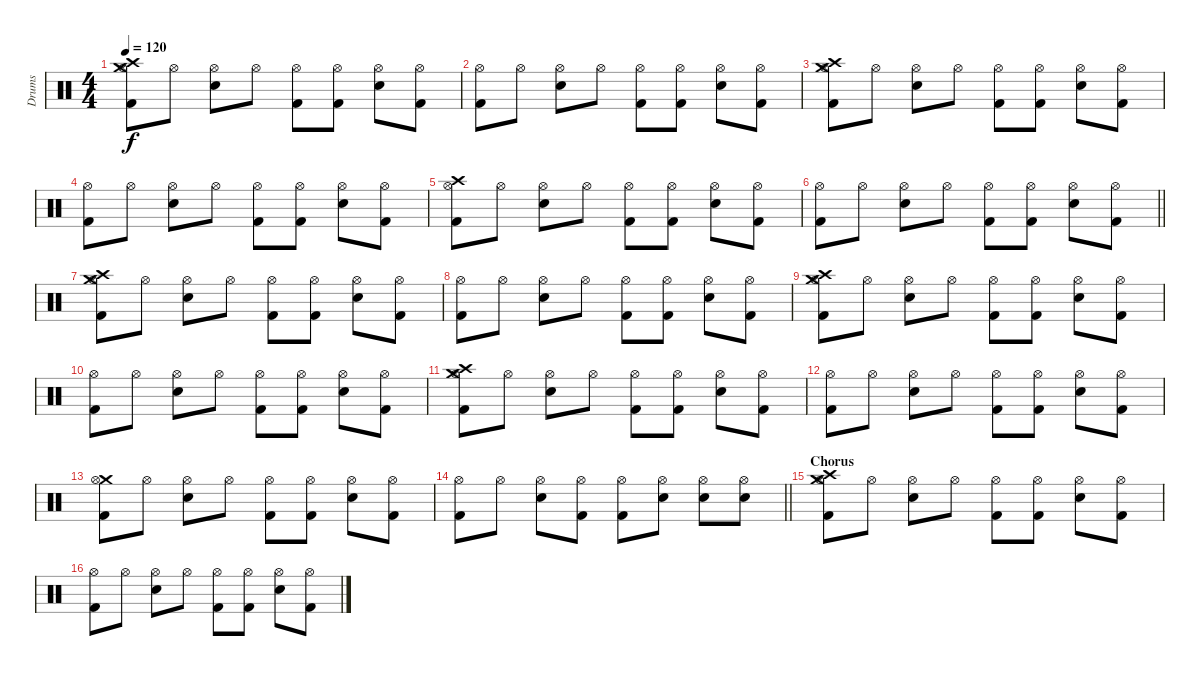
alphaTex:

\track ("Drums" "Drums") {instrument percussion}
\staff {score}
\articulation defaults
\ts (4 4)
\tempo 120
\clef neutral
\ks c
("Crash high (hit)" "Crash medium (hit)" "Kick (hit) 2" "Hi-Hat (open)").8{dy f} "Hi-Hat (open)".8 ("Snare (hit) 2" "Hi-Hat (open)").8 "Hi-Hat (open)".8 ("Kick (hit) 2" "Hi-Hat (open)").8 ("Kick (hit) 2" "Hi-Hat (open)").8 ("Snare (hit) 2" "Hi-Hat (open)").8 ("Kick (hit) 2" "Hi-Hat (open)").8 |
("Kick (hit) 2" "Hi-Hat (open)").8 "Hi-Hat (open)".8 ("Snare (hit) 2" "Hi-Hat (open)").8 "Hi-Hat (open)".8 ("Kick (hit) 2" "Hi-Hat (open)").8 ("Kick (hit) 2" "Hi-Hat (open)").8 ("Snare (hit) 2" "Hi-Hat (open)").8 ("Kick (hit) 2" "Hi-Hat (open)").8 |
("Crash high (hit)" "Crash medium (hit)" "Kick (hit) 2" "Hi-Hat (open)").8 "Hi-Hat (open)".8 ("Snare (hit) 2" "Hi-Hat (open)").8 "Hi-Hat (open)".8 ("Kick (hit) 2" "Hi-Hat (open)").8 ("Kick (hit) 2" "Hi-Hat (open)").8 ("Snare (hit) 2" "Hi-Hat (open)").8 ("Kick (hit) 2" "Hi-Hat (open)").8 |
("Kick (hit) 2" "Hi-Hat (open)").8 "Hi-Hat (open)".8 ("Snare (hit) 2" "Hi-Hat (open)").8 "Hi-Hat (open)".8 ("Kick (hit) 2" "Hi-Hat (open)").8 ("Kick (hit) 2" "Hi-Hat (open)").8 ("Snare (hit) 2" "Hi-Hat (open)").8 ("Kick (hit) 2" "Hi-Hat (open)").8 |
("Crash high (hit)" "Kick (hit) 2" "Hi-Hat (open)").8 "Hi-Hat (open)".8 ("Snare (hit) 2" "Hi-Hat (open)").8 "Hi-Hat (open)".8 ("Kick (hit) 2" "Hi-Hat (open)").8 ("Kick (hit) 2" "Hi-Hat (open)").8 ("Snare (hit) 2" "Hi-Hat (open)").8 ("Kick (hit) 2" "Hi-Hat (open)").8 |
\barLineRight lightlight
("Kick (hit) 2" "Hi-Hat (open)").8 "Hi-Hat (open)".8 ("Snare (hit) 2" "Hi-Hat (open)").8 "Hi-Hat (open)".8 ("Kick (hit) 2" "Hi-Hat (open)").8 ("Kick (hit) 2" "Hi-Hat (open)").8 ("Snare (hit) 2" "Hi-Hat (open)").8 ("Kick (hit) 2" "Hi-Hat (open)").8 |
("Crash high (hit)" "Crash medium (hit)" "Kick (hit) 2" "Hi-Hat (open)").8 "Hi-Hat (open)".8 ("Snare (hit) 2" "Hi-Hat (open)").8 "Hi-Hat (open)".8 ("Kick (hit) 2" "Hi-Hat (open)").8 ("Kick (hit) 2" "Hi-Hat (open)").8 ("Snare (hit) 2" "Hi-Hat (open)").8 ("Kick (hit) 2" "Hi-Hat (open)").8 |
("Kick (hit) 2" "Hi-Hat (open)").8 "Hi-Hat (open)".8 ("Snare (hit) 2" "Hi-Hat (open)").8 "Hi-Hat (open)".8 ("Kick (hit) 2" "Hi-Hat (open)").8 ("Kick (hit) 2" "Hi-Hat (open)").8 ("Snare (hit) 2" "Hi-Hat (open)").8 ("Kick (hit) 2" "Hi-Hat (open)").8 |
("Crash high (hit)" "Crash medium (hit)" "Kick (hit) 2" "Hi-Hat (open)").8 "Hi-Hat (open)".8 ("Snare (hit) 2" "Hi-Hat (open)").8 "Hi-Hat (open)".8 ("Kick (hit) 2" "Hi-Hat (open)").8 ("Kick (hit) 2" "Hi-Hat (open)").8 ("Snare (hit) 2" "Hi-Hat (open)").8 ("Kick (hit) 2" "Hi-Hat (open)").8 |
("Kick (hit) 2" "Hi-Hat (open)").8 "Hi-Hat (open)".8 ("Snare (hit) 2" "Hi-Hat (open)").8 "Hi-Hat (open)".8 ("Kick (hit) 2" "Hi-Hat (open)").8 ("Kick (hit) 2" "Hi-Hat (open)").8 ("Snare (hit) 2" "Hi-Hat (open)").8 ("Kick (hit) 2" "Hi-Hat (open)").8 |
("Crash high (hit)" "Crash medium (hit)" "Kick (hit) 2" "Hi-Hat (open)").8 "Hi-Hat (open)".8 ("Snare (hit) 2" "Hi-Hat (open)").8 "Hi-Hat (open)".8 ("Kick (hit) 2" "Hi-Hat (open)").8 ("Kick (hit) 2" "Hi-Hat (open)").8 ("Snare (hit) 2" "Hi-Hat (open)").8 ("Kick (hit) 2" "Hi-Hat (open)").8 |
("Kick (hit) 2" "Hi-Hat (open)").8 "Hi-Hat (open)".8 ("Snare (hit) 2" "Hi-Hat (open)").8 "Hi-Hat (open)".8 ("Kick (hit) 2" "Hi-Hat (open)").8 ("Kick (hit) 2" "Hi-Hat (open)").8 ("Snare (hit) 2" "Hi-Hat (open)").8 ("Kick (hit) 2" "Hi-Hat (open)").8 |
("Crash medium (hit)" "Kick (hit) 2" "Hi-Hat (open)").8 "Hi-Hat (open)".8 ("Snare (hit) 2" "Hi-Hat (open)").8 "Hi-Hat (open)".8 ("Kick (hit) 2" "Hi-Hat (open)").8 ("Kick (hit) 2" "Hi-Hat (open)").8 ("Snare (hit) 2" "Hi-Hat (open)").8 ("Kick (hit) 2" "Hi-Hat (open)").8 |
\barLineRight lightlight
("Kick (hit) 2" "Hi-Hat (open)").8 "Hi-Hat (open)".8 ("Snare (hit) 2" "Hi-Hat (open)").8 ("Kick (hit) 2" "Hi-Hat (open)").8 ("Kick (hit) 2" "Hi-Hat (open)").8 ("Snare (hit) 2" "Hi-Hat (open)").8 ("Snare (hit) 2" "Hi-Hat (open)").8 ("Snare (hit) 2" "Hi-Hat (open)").8 |
\section ("" "Chorus")
("Crash high (hit)" "Crash medium (hit)" "Kick (hit) 2" "Hi-Hat (open)").8 "Hi-Hat (open)".8 ("Snare (hit) 2" "Hi-Hat (open)").8 "Hi-Hat (open)".8 ("Kick (hit) 2" "Hi-Hat (open)").8 ("Kick (hit) 2" "Hi-Hat (open)").8 ("Snare (hit) 2" "Hi-Hat (open)").8 ("Kick (hit) 2" "Hi-Hat (open)").8 |
("Kick (hit) 2" "Hi-Hat (open)").8 "Hi-Hat (open)".8 ("Snare (hit) 2" "Hi-Hat (open)").8 "Hi-Hat (open)".8 ("Kick (hit) 2" "Hi-Hat (open)").8 ("Kick (hit) 2" "Hi-Hat (open)").8 ("Snare (hit) 2" "Hi-Hat (open)").8 ("Kick (hit) 2" "Hi-Hat (open)").8
